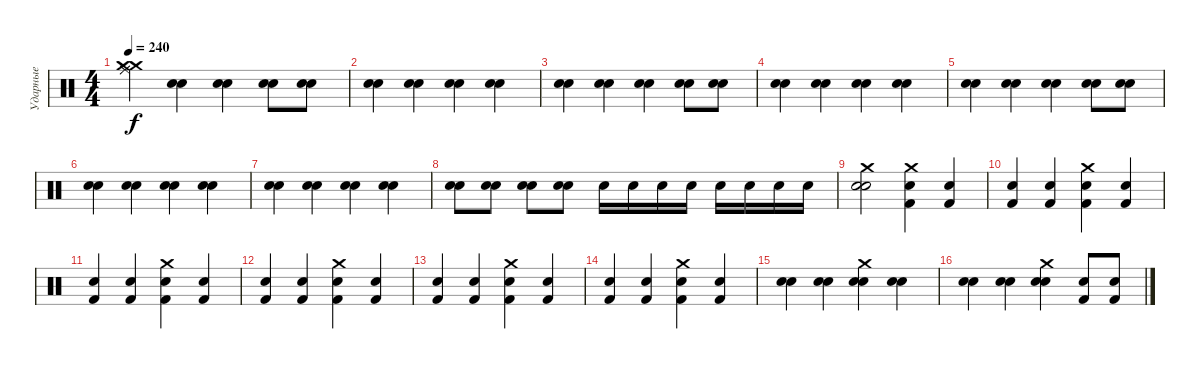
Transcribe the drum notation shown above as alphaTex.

\track ("Ударные" "Ударные") {instrument percussion}
\staff {score}
\articulation defaults
\ts (4 4)
\tempo 240
\clef neutral
\ks c
("Crash medium (hit)" "Ride (middle)" "Ride (middle)" "Crash medium (hit)").4{dy f} ("Snare (hit) 2" "Snare (hit) 2").4 ("Snare (hit) 2" "Snare (hit) 2").4 ("Snare (hit) 2" "Snare (hit) 2").8 ("Snare (hit) 2" "Snare (hit) 2").8 |
("Snare (hit) 2" "Snare (hit) 2").4 ("Snare (hit) 2" "Snare (hit) 2").4 ("Snare (hit) 2" "Snare (hit) 2").4 ("Snare (hit) 2" "Snare (hit) 2").4 |
("Snare (hit) 2" "Snare (hit) 2").4 ("Snare (hit) 2" "Snare (hit) 2").4 ("Snare (hit) 2" "Snare (hit) 2").4 ("Snare (hit) 2" "Snare (hit) 2").8 ("Snare (hit) 2" "Snare (hit) 2").8 |
("Snare (hit) 2" "Snare (hit) 2").4 ("Snare (hit) 2" "Snare (hit) 2").4 ("Snare (hit) 2" "Snare (hit) 2").4 ("Snare (hit) 2" "Snare (hit) 2").4 |
("Snare (hit) 2" "Snare (hit) 2").4 ("Snare (hit) 2" "Snare (hit) 2").4 ("Snare (hit) 2" "Snare (hit) 2").4 ("Snare (hit) 2" "Snare (hit) 2").8 ("Snare (hit) 2" "Snare (hit) 2").8 |
("Snare (hit) 2" "Snare (hit) 2").4 ("Snare (hit) 2" "Snare (hit) 2").4 ("Snare (hit) 2" "Snare (hit) 2").4 ("Snare (hit) 2" "Snare (hit) 2").4 |
("Snare (hit) 2" "Snare (hit) 2").4 ("Snare (hit) 2" "Snare (hit) 2").4 ("Snare (hit) 2" "Snare (hit) 2").4 ("Snare (hit) 2" "Snare (hit) 2").4 |
("Snare (hit) 2" "Snare (hit) 2").8 ("Snare (hit) 2" "Snare (hit) 2").8 ("Snare (hit) 2" "Snare (hit) 2").8 ("Snare (hit) 2" "Snare (hit) 2").8 "Snare (hit) 2".16 "Snare (hit) 2".16 "Snare (hit) 2".16 "Snare (hit) 2".16 "Snare (hit) 2".16 "Snare (hit) 2".16 "Snare (hit) 2".16 "Snare (hit) 2".16 |
("Crash medium (hit)" "Snare (hit) 2" "Snare (hit) 2").2 ("Crash medium (hit)" "Kick (hit) 2" "Snare (hit) 2").4 ("Kick (hit) 2" "Snare (hit) 2").4 |
("Kick (hit) 2" "Snare (hit) 2").4 ("Snare (hit) 2" "Kick (hit) 2").4 ("Crash medium (hit)" "Snare (hit) 2" "Kick (hit) 2").4 ("Snare (hit) 2" "Kick (hit) 2").4 |
("Kick (hit) 2" "Snare (hit) 2").4 ("Kick (hit) 2" "Snare (hit) 2").4 ("Crash medium (hit)" "Kick (hit) 2" "Snare (hit) 2").4 ("Kick (hit) 2" "Snare (hit) 2").4 |
("Kick (hit) 2" "Snare (hit) 2").4 ("Kick (hit) 2" "Snare (hit) 2").4 ("Crash medium (hit)" "Snare (hit) 2" "Kick (hit) 2").4 ("Snare (hit) 2" "Kick (hit) 2").4 |
("Kick (hit) 2" "Snare (hit) 2").4 ("Kick (hit) 2" "Snare (hit) 2").4 ("Crash medium (hit)" "Kick (hit) 2" "Snare (hit) 2").4 ("Kick (hit) 2" "Snare (hit) 2").4 |
("Kick (hit) 2" "Snare (hit) 2").4 ("Kick (hit) 2" "Snare (hit) 2").4 ("Crash medium (hit)" "Snare (hit) 2" "Kick (hit) 2").4 ("Snare (hit) 2" "Kick (hit) 2").4 |
("Snare (hit) 2" "Snare (hit) 2").4 ("Snare (hit) 2" "Snare (hit) 2").4 ("Crash medium (hit)" "Snare (hit) 2" "Snare (hit) 2").4 ("Snare (hit) 2" "Snare (hit) 2").4 |
("Snare (hit) 2" "Snare (hit) 2").4 ("Snare (hit) 2" "Snare (hit) 2").4 ("Crash medium (hit)" "Snare (hit) 2" "Snare (hit) 2").4 ("Snare (hit) 2" "Kick (hit) 2").8 ("Snare (hit) 2" "Kick (hit) 2").8
